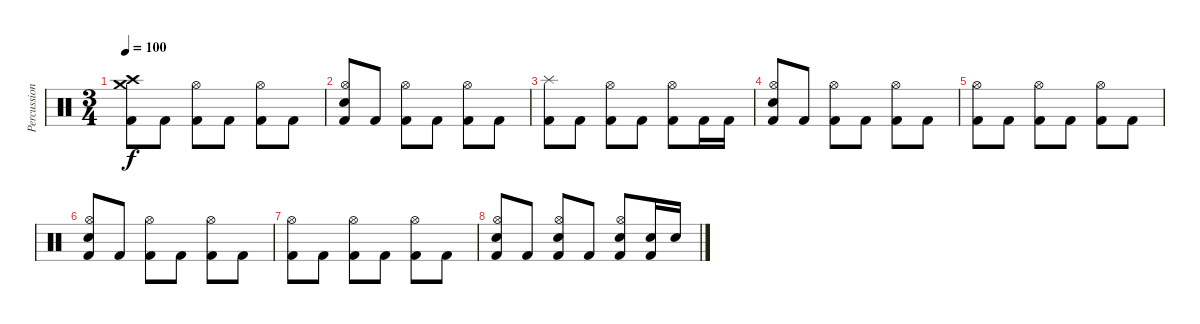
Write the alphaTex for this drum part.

\track ("Percussion" "Percussion") {instrument percussion}
\staff {score}
\articulation defaults
\ts (3 4)
\tempo 100
\clef neutral
\ks c
("Crash high (hit)" "Crash medium (hit)" "Kick (hit) 2").8{dy f} "Kick (hit) 2".8 ("Hi-Hat (open)" "Kick (hit) 2").8 "Kick (hit) 2".8 ("Hi-Hat (open)" "Kick (hit) 2").8 "Kick (hit) 2".8 |
("Hi-Hat (open)" "Electric Snare (hit)" "Kick (hit) 2").8 "Kick (hit) 2".8 ("Hi-Hat (open)" "Kick (hit) 2").8 "Kick (hit) 2".8 ("Hi-Hat (open)" "Kick (hit) 2").8 "Kick (hit) 2".8 |
("Splash (hit)" "Kick (hit) 2").8 "Kick (hit) 2".8 ("Hi-Hat (open)" "Kick (hit) 2").8 "Kick (hit) 2".8 ("Hi-Hat (open)" "Kick (hit) 2").8 "Kick (hit) 2".16 "Kick (hit) 2".16 |
("Hi-Hat (open)" "Electric Snare (hit)" "Kick (hit) 2").8 "Kick (hit) 2".8 ("Hi-Hat (open)" "Kick (hit) 2").8 "Kick (hit) 2".8 ("Hi-Hat (open)" "Kick (hit) 2").8 "Kick (hit) 2".8 |
("Hi-Hat (open)" "Kick (hit) 2").8 "Kick (hit) 2".8 ("Hi-Hat (open)" "Kick (hit) 2").8 "Kick (hit) 2".8 ("Hi-Hat (open)" "Kick (hit) 2").8 "Kick (hit) 2".8 |
("Hi-Hat (open)" "Electric Snare (hit)" "Kick (hit) 2").8 "Kick (hit) 2".8 ("Hi-Hat (open)" "Kick (hit) 2").8 "Kick (hit) 2".8 ("Hi-Hat (open)" "Kick (hit) 2").8 "Kick (hit) 2".8 |
("Hi-Hat (open)" "Kick (hit) 2").8 "Kick (hit) 2".8 ("Hi-Hat (open)" "Kick (hit) 2").8 "Kick (hit) 2".8 ("Hi-Hat (open)" "Kick (hit) 2").8 "Kick (hit) 2".8 |
("Hi-Hat (open)" "Electric Snare (hit)" "Kick (hit) 2").8 "Kick (hit) 2".8 ("Hi-Hat (open)" "Electric Snare (hit)" "Kick (hit) 2").8 "Kick (hit) 2".8 ("Hi-Hat (open)" "Electric Snare (hit)" "Kick (hit) 2").8 ("Electric Snare (hit)" "Kick (hit) 2").16 "Electric Snare (hit)".16
